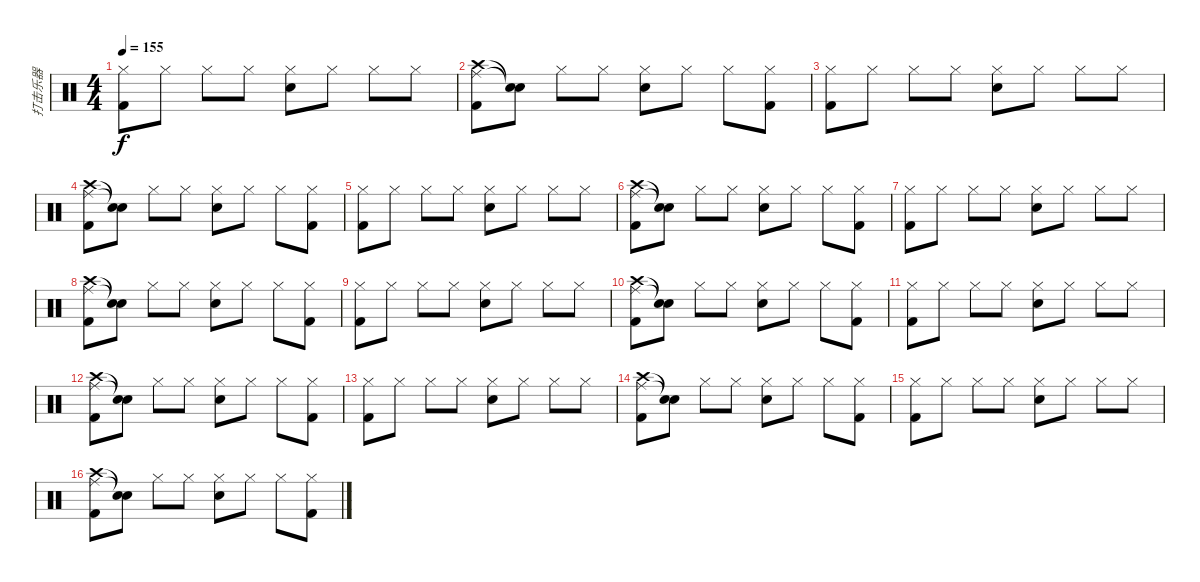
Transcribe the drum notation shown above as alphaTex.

\track ("打击乐器" "打击乐器") {instrument percussion}
\staff {score}
\articulation defaults
\ts (4 4)
\tempo 155
\clef neutral
\ks c
("Hi-Hat (closed)" "Kick (hit) 2").8{dy f} "Hi-Hat (closed)".8 "Hi-Hat (closed)".8 "Hi-Hat (closed)".8 ("Hi-Hat (closed)" "Snare (hit) 2").8 "Hi-Hat (closed)".8 "Hi-Hat (closed)".8 "Hi-Hat (closed)".8 |
("Crash high (hit)" "Ride (middle)" "Kick (hit) 2").8 ("Snare (hit)"{t} "Snare (hit)"{t}).8 "Hi-Hat (closed)".8 "Hi-Hat (closed)".8 ("Hi-Hat (closed)" "Snare (hit) 2").8 "Hi-Hat (closed)".8 "Hi-Hat (closed)".8 ("Hi-Hat (closed)" "Kick (hit) 2").8 |
("Hi-Hat (closed)" "Kick (hit) 2").8 "Hi-Hat (closed)".8 "Hi-Hat (closed)".8 "Hi-Hat (closed)".8 ("Hi-Hat (closed)" "Snare (hit) 2").8 "Hi-Hat (closed)".8 "Hi-Hat (closed)".8 "Hi-Hat (closed)".8 |
("Crash high (hit)" "Ride (middle)" "Kick (hit) 2").8 ("Snare (hit)"{t} "Snare (hit)"{t}).8 "Hi-Hat (closed)".8 "Hi-Hat (closed)".8 ("Hi-Hat (closed)" "Snare (hit) 2").8 "Hi-Hat (closed)".8 "Hi-Hat (closed)".8 ("Hi-Hat (closed)" "Kick (hit) 2").8 |
("Hi-Hat (closed)" "Kick (hit) 2").8 "Hi-Hat (closed)".8 "Hi-Hat (closed)".8 "Hi-Hat (closed)".8 ("Hi-Hat (closed)" "Snare (hit) 2").8 "Hi-Hat (closed)".8 "Hi-Hat (closed)".8 "Hi-Hat (closed)".8 |
("Crash high (hit)" "Ride (middle)" "Kick (hit) 2").8 ("Snare (hit)"{t} "Snare (hit)"{t}).8 "Hi-Hat (closed)".8 "Hi-Hat (closed)".8 ("Hi-Hat (closed)" "Snare (hit) 2").8 "Hi-Hat (closed)".8 "Hi-Hat (closed)".8 ("Hi-Hat (closed)" "Kick (hit) 2").8 |
("Hi-Hat (closed)" "Kick (hit) 2").8 "Hi-Hat (closed)".8 "Hi-Hat (closed)".8 "Hi-Hat (closed)".8 ("Hi-Hat (closed)" "Snare (hit) 2").8 "Hi-Hat (closed)".8 "Hi-Hat (closed)".8 "Hi-Hat (closed)".8 |
("Crash high (hit)" "Ride (middle)" "Kick (hit) 2").8 ("Snare (hit)"{t} "Snare (hit)"{t}).8 "Hi-Hat (closed)".8 "Hi-Hat (closed)".8 ("Hi-Hat (closed)" "Snare (hit) 2").8 "Hi-Hat (closed)".8 "Hi-Hat (closed)".8 ("Hi-Hat (closed)" "Kick (hit) 2").8 |
("Hi-Hat (closed)" "Kick (hit) 2").8 "Hi-Hat (closed)".8 "Hi-Hat (closed)".8 "Hi-Hat (closed)".8 ("Hi-Hat (closed)" "Snare (hit) 2").8 "Hi-Hat (closed)".8 "Hi-Hat (closed)".8 "Hi-Hat (closed)".8 |
("Crash high (hit)" "Ride (middle)" "Kick (hit) 2").8 ("Snare (hit)"{t} "Snare (hit)"{t}).8 "Hi-Hat (closed)".8 "Hi-Hat (closed)".8 ("Hi-Hat (closed)" "Snare (hit) 2").8 "Hi-Hat (closed)".8 "Hi-Hat (closed)".8 ("Hi-Hat (closed)" "Kick (hit) 2").8 |
("Hi-Hat (closed)" "Kick (hit) 2").8 "Hi-Hat (closed)".8 "Hi-Hat (closed)".8 "Hi-Hat (closed)".8 ("Hi-Hat (closed)" "Snare (hit) 2").8 "Hi-Hat (closed)".8 "Hi-Hat (closed)".8 "Hi-Hat (closed)".8 |
("Crash high (hit)" "Ride (middle)" "Kick (hit) 2").8 ("Snare (hit)"{t} "Snare (hit)"{t}).8 "Hi-Hat (closed)".8 "Hi-Hat (closed)".8 ("Hi-Hat (closed)" "Snare (hit) 2").8 "Hi-Hat (closed)".8 "Hi-Hat (closed)".8 ("Hi-Hat (closed)" "Kick (hit) 2").8 |
("Hi-Hat (closed)" "Kick (hit) 2").8 "Hi-Hat (closed)".8 "Hi-Hat (closed)".8 "Hi-Hat (closed)".8 ("Hi-Hat (closed)" "Snare (hit) 2").8 "Hi-Hat (closed)".8 "Hi-Hat (closed)".8 "Hi-Hat (closed)".8 |
("Crash high (hit)" "Ride (middle)" "Kick (hit) 2").8 ("Snare (hit)"{t} "Snare (hit)"{t}).8 "Hi-Hat (closed)".8 "Hi-Hat (closed)".8 ("Hi-Hat (closed)" "Snare (hit) 2").8 "Hi-Hat (closed)".8 "Hi-Hat (closed)".8 ("Hi-Hat (closed)" "Kick (hit) 2").8 |
("Hi-Hat (closed)" "Kick (hit) 2").8 "Hi-Hat (closed)".8 "Hi-Hat (closed)".8 "Hi-Hat (closed)".8 ("Hi-Hat (closed)" "Snare (hit) 2").8 "Hi-Hat (closed)".8 "Hi-Hat (closed)".8 "Hi-Hat (closed)".8 |
("Crash high (hit)" "Ride (middle)" "Kick (hit) 2").8 ("Snare (hit)"{t} "Snare (hit)"{t}).8 "Hi-Hat (closed)".8 "Hi-Hat (closed)".8 ("Hi-Hat (closed)" "Snare (hit) 2").8 "Hi-Hat (closed)".8 "Hi-Hat (closed)".8 ("Hi-Hat (closed)" "Kick (hit) 2").8
